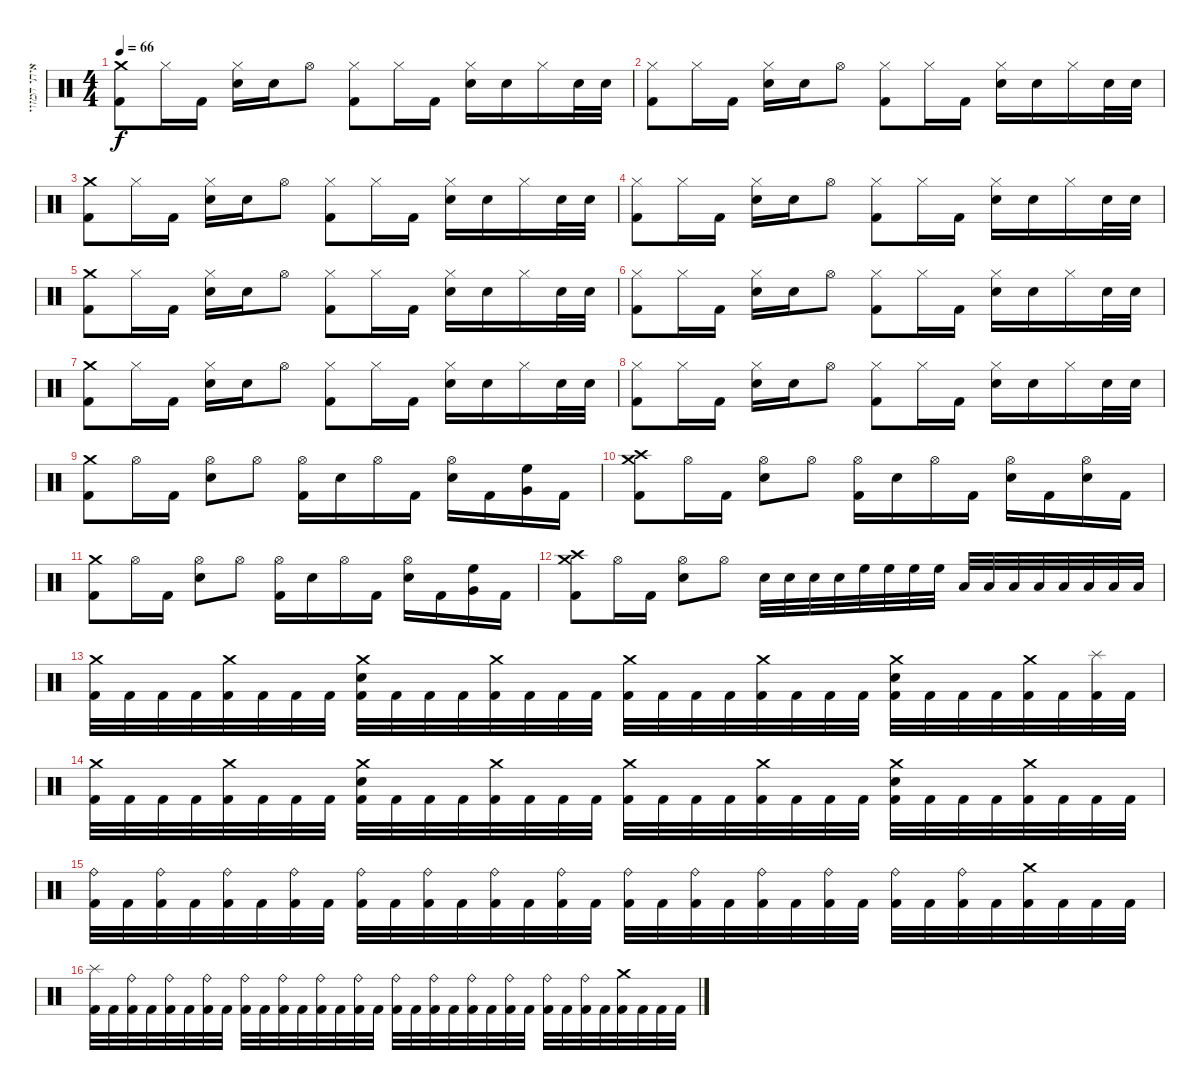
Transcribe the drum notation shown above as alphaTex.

\track ("איתי המזויין" "איתי המזוי") {instrument percussion}
\staff {score}
\articulation defaults
\ts (4 4)
\tempo 66
\clef neutral
\ks c
("Crash medium (hit)" "Kick (hit) 2").8{dy f} "Hi-Hat (closed)".16 "Kick (hit) 2".16 ("Hi-Hat (closed)" "Electric Snare (hit)").16 "Electric Snare (hit)".16 "Hi-Hat (open)".8 ("Hi-Hat (closed)" "Kick (hit) 2").8 "Hi-Hat (closed)".16 "Kick (hit) 2".16 ("Hi-Hat (closed)" "Electric Snare (hit)").16 "Electric Snare (hit)".16 "Hi-Hat (closed)".16 "Electric Snare (hit)".32 "Electric Snare (hit)".32 |
("Hi-Hat (closed)" "Kick (hit) 2").8 "Hi-Hat (closed)".16 "Kick (hit) 2".16 ("Hi-Hat (closed)" "Electric Snare (hit)").16 "Electric Snare (hit)".16 "Hi-Hat (open)".8 ("Hi-Hat (closed)" "Kick (hit) 2").8 "Hi-Hat (closed)".16 "Kick (hit) 2".16 ("Hi-Hat (closed)" "Electric Snare (hit)").16 "Electric Snare (hit)".16 "Hi-Hat (closed)".16 "Electric Snare (hit)".32 "Electric Snare (hit)".32 |
("Crash medium (hit)" "Kick (hit) 2").8 "Hi-Hat (closed)".16 "Kick (hit) 2".16 ("Hi-Hat (closed)" "Electric Snare (hit)").16 "Electric Snare (hit)".16 "Hi-Hat (open)".8 ("Hi-Hat (closed)" "Kick (hit) 2").8 "Hi-Hat (closed)".16 "Kick (hit) 2".16 ("Hi-Hat (closed)" "Electric Snare (hit)").16 "Electric Snare (hit)".16 "Hi-Hat (closed)".16 "Electric Snare (hit)".32 "Electric Snare (hit)".32 |
("Hi-Hat (closed)" "Kick (hit) 2").8 "Hi-Hat (closed)".16 "Kick (hit) 2".16 ("Hi-Hat (closed)" "Electric Snare (hit)").16 "Electric Snare (hit)".16 "Hi-Hat (open)".8 ("Hi-Hat (closed)" "Kick (hit) 2").8 "Hi-Hat (closed)".16 "Kick (hit) 2".16 ("Hi-Hat (closed)" "Electric Snare (hit)").16 "Electric Snare (hit)".16 "Hi-Hat (closed)".16 "Electric Snare (hit)".32 "Electric Snare (hit)".32 |
("Crash medium (hit)" "Kick (hit) 2").8 "Hi-Hat (closed)".16 "Kick (hit) 2".16 ("Hi-Hat (closed)" "Electric Snare (hit)").16 "Electric Snare (hit)".16 "Hi-Hat (open)".8 ("Hi-Hat (closed)" "Kick (hit) 2").8 "Hi-Hat (closed)".16 "Kick (hit) 2".16 ("Hi-Hat (closed)" "Electric Snare (hit)").16 "Electric Snare (hit)".16 "Hi-Hat (closed)".16 "Electric Snare (hit)".32 "Electric Snare (hit)".32 |
("Hi-Hat (closed)" "Kick (hit) 2").8 "Hi-Hat (closed)".16 "Kick (hit) 2".16 ("Hi-Hat (closed)" "Electric Snare (hit)").16 "Electric Snare (hit)".16 "Hi-Hat (open)".8 ("Hi-Hat (closed)" "Kick (hit) 2").8 "Hi-Hat (closed)".16 "Kick (hit) 2".16 ("Hi-Hat (closed)" "Electric Snare (hit)").16 "Electric Snare (hit)".16 "Hi-Hat (closed)".16 "Electric Snare (hit)".32 "Electric Snare (hit)".32 |
("Crash medium (hit)" "Kick (hit) 2").8 "Hi-Hat (closed)".16 "Kick (hit) 2".16 ("Hi-Hat (closed)" "Electric Snare (hit)").16 "Electric Snare (hit)".16 "Hi-Hat (open)".8 ("Hi-Hat (closed)" "Kick (hit) 2").8 "Hi-Hat (closed)".16 "Kick (hit) 2".16 ("Hi-Hat (closed)" "Electric Snare (hit)").16 "Electric Snare (hit)".16 "Hi-Hat (closed)".16 "Electric Snare (hit)".32 "Electric Snare (hit)".32 |
("Hi-Hat (closed)" "Kick (hit) 2").8 "Hi-Hat (closed)".16 "Kick (hit) 2".16 ("Hi-Hat (closed)" "Electric Snare (hit)").16 "Electric Snare (hit)".16 "Hi-Hat (open)".8 ("Hi-Hat (closed)" "Kick (hit) 2").8 "Hi-Hat (closed)".16 "Kick (hit) 2".16 ("Hi-Hat (closed)" "Electric Snare (hit)").16 "Electric Snare (hit)".16 "Hi-Hat (closed)".16 "Electric Snare (hit)".32 "Electric Snare (hit)".32 |
("Crash medium (hit)" "Kick (hit) 2").8 "Hi-Hat (open)".16 "Kick (hit) 2".16 ("Hi-Hat (open)" "Electric Snare (hit)").8 "Hi-Hat (open)".8 ("Hi-Hat (open)" "Kick (hit) 2").16 "Electric Snare (hit)".16 "Hi-Hat (open)".16 "Kick (hit) 2".16 ("Hi-Hat (open)" "Electric Snare (hit)").16 "Kick (hit) 2".16 ("Very Low Tom (hit)" "High Floor Tom (hit)").16 "Kick (hit) 2".16 |
("Crash medium (hit)" "Crash high (hit)" "Kick (hit) 2").8 "Hi-Hat (open)".16 "Kick (hit) 2".16 ("Hi-Hat (open)" "Electric Snare (hit)").8 "Hi-Hat (open)".8 ("Hi-Hat (open)" "Kick (hit) 2").16 "Electric Snare (hit)".16 "Hi-Hat (open)".16 "Kick (hit) 2".16 ("Hi-Hat (open)" "Electric Snare (hit)").16 "Kick (hit) 2".16 ("Hi-Hat (open)" "Electric Snare (hit)").16 "Kick (hit) 2".16 |
("Crash medium (hit)" "Kick (hit) 2").8 "Hi-Hat (open)".16 "Kick (hit) 2".16 ("Hi-Hat (open)" "Electric Snare (hit)").8 "Hi-Hat (open)".8 ("Hi-Hat (open)" "Kick (hit) 2").16 "Electric Snare (hit)".16 "Hi-Hat (open)".16 "Kick (hit) 2".16 ("Hi-Hat (open)" "Electric Snare (hit)").16 "Kick (hit) 2".16 ("Very Low Tom (hit)" "High Floor Tom (hit)").16 "Kick (hit) 2".16 |
("Crash medium (hit)" "Crash high (hit)" "Kick (hit) 2").8 "Hi-Hat (open)".16 "Kick (hit) 2".16 ("Hi-Hat (open)" "Electric Snare (hit)").8 "Hi-Hat (open)".8 "Electric Snare (hit)".32 "Electric Snare (hit)".32 "Electric Snare (hit)".32 "Electric Snare (hit)".32 "High Floor Tom (hit)".32 "High Floor Tom (hit)".32 "High Floor Tom (hit)".32 "High Floor Tom (hit)".32 "Low Tom (hit)".32 "Low Tom (hit)".32 "Low Tom (hit)".32 "Low Tom (hit)".32 "Low Floor Tom (hit)".32 "Low Floor Tom (hit)".32 "Low Floor Tom (hit)".32 "Low Floor Tom (hit)".32 |
("Crash medium (hit)" "Kick (hit) 2").32 "Kick (hit) 2".32 "Kick (hit) 2".32 "Kick (hit) 2".32 ("Crash medium (hit)" "Kick (hit) 2").32 "Kick (hit) 2".32 "Kick (hit) 2".32 "Kick (hit) 2".32 ("Crash medium (hit)" "Kick (hit) 2" "Electric Snare (hit)").32 "Kick (hit) 2".32 "Kick (hit) 2".32 "Kick (hit) 2".32 ("Crash medium (hit)" "Kick (hit) 2").32 "Kick (hit) 2".32 "Kick (hit) 2".32 "Kick (hit) 2".32 ("Crash medium (hit)" "Kick (hit) 2").32 "Kick (hit) 2".32 "Kick (hit) 2".32 "Kick (hit) 2".32 ("Crash medium (hit)" "Kick (hit) 2").32 "Kick (hit) 2".32 "Kick (hit) 2".32 "Kick (hit) 2".32 ("Crash medium (hit)" "Kick (hit) 2" "Electric Snare (hit)").32 "Kick (hit) 2".32 "Kick (hit) 2".32 "Kick (hit) 2".32 ("Crash medium (hit)" "Kick (hit) 2").32 "Kick (hit) 2".32 ("Splash (hit)" "Kick (hit) 2").32 "Kick (hit) 2".32 |
("Crash medium (hit)" "Kick (hit) 2").32 "Kick (hit) 2".32 "Kick (hit) 2".32 "Kick (hit) 2".32 ("Crash medium (hit)" "Kick (hit) 2").32 "Kick (hit) 2".32 "Kick (hit) 2".32 "Kick (hit) 2".32 ("Crash medium (hit)" "Kick (hit) 2" "Electric Snare (hit)").32 "Kick (hit) 2".32 "Kick (hit) 2".32 "Kick (hit) 2".32 ("Crash medium (hit)" "Kick (hit) 2").32 "Kick (hit) 2".32 "Kick (hit) 2".32 "Kick (hit) 2".32 ("Crash medium (hit)" "Kick (hit) 2").32 "Kick (hit) 2".32 "Kick (hit) 2".32 "Kick (hit) 2".32 ("Crash medium (hit)" "Kick (hit) 2").32 "Kick (hit) 2".32 "Kick (hit) 2".32 "Kick (hit) 2".32 ("Crash medium (hit)" "Kick (hit) 2" "Electric Snare (hit)").32 "Kick (hit) 2".32 "Kick (hit) 2".32 "Kick (hit) 2".32 ("Crash medium (hit)" "Kick (hit) 2").32 "Kick (hit) 2".32 "Kick (hit) 2".32 "Kick (hit) 2".32 |
("Ride (bell)" "Kick (hit) 2").32 "Kick (hit) 2".32 ("Ride (bell)" "Kick (hit) 2").32 "Kick (hit) 2".32 ("Ride (bell)" "Kick (hit) 2").32 "Kick (hit) 2".32 ("Ride (bell)" "Kick (hit) 2").32 "Kick (hit) 2".32 ("Ride (bell)" "Kick (hit) 2").32 "Kick (hit) 2".32 ("Ride (bell)" "Kick (hit) 2").32 "Kick (hit) 2".32 ("Ride (bell)" "Kick (hit) 2").32 "Kick (hit) 2".32 ("Ride (bell)" "Kick (hit) 2").32 "Kick (hit) 2".32 ("Ride (bell)" "Kick (hit) 2").32 "Kick (hit) 2".32 ("Ride (bell)" "Kick (hit) 2").32 "Kick (hit) 2".32 ("Ride (bell)" "Kick (hit) 2").32 "Kick (hit) 2".32 ("Ride (bell)" "Kick (hit) 2").32 "Kick (hit) 2".32 ("Ride (bell)" "Kick (hit) 2").32 "Kick (hit) 2".32 ("Ride (bell)" "Kick (hit) 2").32 "Kick (hit) 2".32 ("Crash medium (hit)" "Kick (hit) 2").32 "Kick (hit) 2".32 "Kick (hit) 2".32 "Kick (hit) 2".32 |
("Splash (hit)" "Kick (hit) 2").32 "Kick (hit) 2".32 ("Ride (bell)" "Kick (hit) 2").32 "Kick (hit) 2".32 ("Ride (bell)" "Kick (hit) 2").32 "Kick (hit) 2".32 ("Ride (bell)" "Kick (hit) 2").32 "Kick (hit) 2".32 ("Ride (bell)" "Kick (hit) 2").32 "Kick (hit) 2".32 ("Ride (bell)" "Kick (hit) 2").32 "Kick (hit) 2".32 ("Ride (bell)" "Kick (hit) 2").32 "Kick (hit) 2".32 ("Ride (bell)" "Kick (hit) 2").32 "Kick (hit) 2".32 ("Ride (bell)" "Kick (hit) 2").32 "Kick (hit) 2".32 ("Ride (bell)" "Kick (hit) 2").32 "Kick (hit) 2".32 ("Ride (bell)" "Kick (hit) 2").32 "Kick (hit) 2".32 ("Ride (bell)" "Kick (hit) 2").32 "Kick (hit) 2".32 ("Ride (bell)" "Kick (hit) 2").32 "Kick (hit) 2".32 ("Ride (bell)" "Kick (hit) 2").32 "Kick (hit) 2".32 ("Crash medium (hit)" "Kick (hit) 2").32 "Kick (hit) 2".32 "Kick (hit) 2".32 "Kick (hit) 2".32
